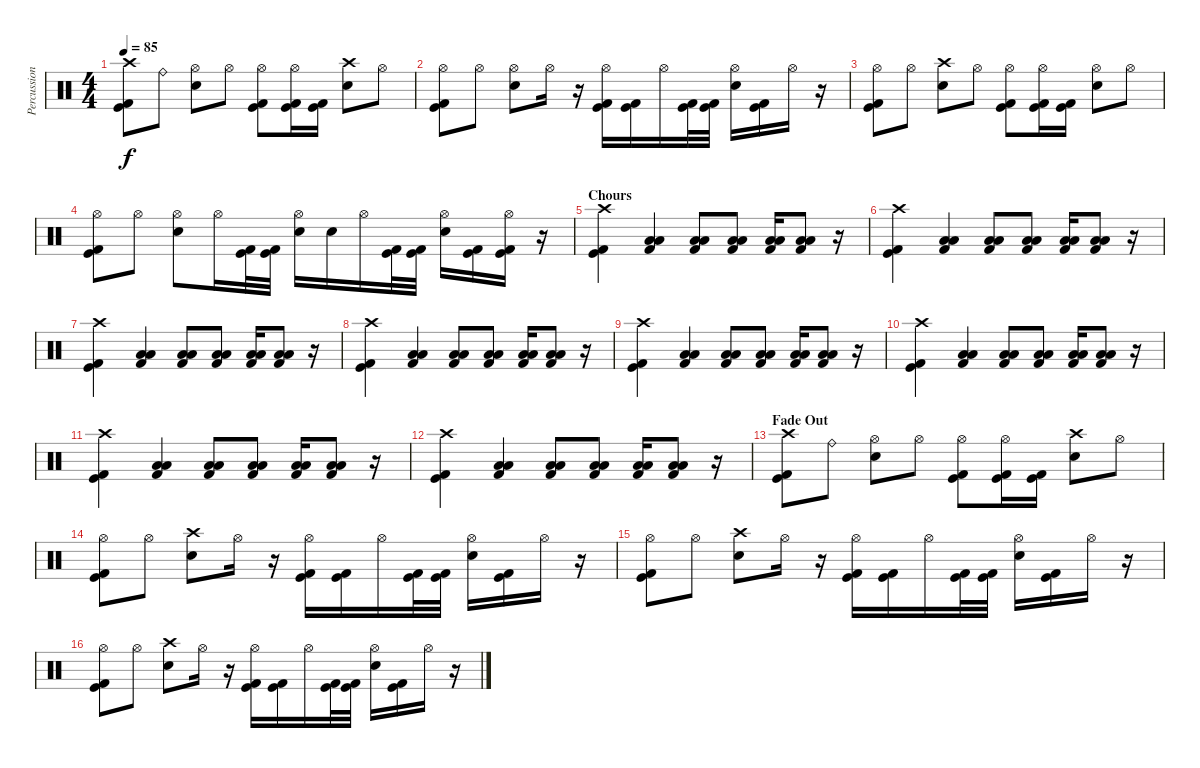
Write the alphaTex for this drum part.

\track ("Percussion" "Percussion") {instrument percussion}
\staff {score}
\articulation defaults
\ts (4 4)
\tempo 85
\clef neutral
\ks c
("Crash high (hit)" "Kick (hit) 2" "Kick (hit)").8{dy f} "Ride (bell)".8 ("Hi-Hat (open)" "Electric Snare (hit)").8 "Hi-Hat (open)".8 ("Hi-Hat (open)" "Kick (hit) 2" "Kick (hit)").8 ("Hi-Hat (open)" "Kick (hit) 2" "Kick (hit)").16 ("Kick (hit) 2" "Kick (hit)").16 ("Crash high (hit)" "Electric Snare (hit)").8 "Hi-Hat (open)".8 |
("Hi-Hat (open)" "Kick (hit) 2" "Kick (hit)").8 "Hi-Hat (open)".8 ("Hi-Hat (open)" "Electric Snare (hit)").8 "Hi-Hat (open)".16 r.16 ("Hi-Hat (open)" "Kick (hit) 2" "Kick (hit)").16 ("Kick (hit) 2" "Kick (hit)").16 "Hi-Hat (open)".16 ("Kick (hit) 2" "Kick (hit)").32 ("Kick (hit) 2" "Kick (hit)").32 ("Hi-Hat (open)" "Electric Snare (hit)").16 ("Kick (hit) 2" "Kick (hit)").16 "Hi-Hat (open)".16 r.16 |
("Hi-Hat (open)" "Kick (hit) 2" "Kick (hit)").8 "Hi-Hat (open)".8 ("Crash high (hit)" "Electric Snare (hit)").8 "Hi-Hat (open)".8 ("Hi-Hat (open)" "Kick (hit) 2" "Kick (hit)").8 ("Hi-Hat (open)" "Kick (hit) 2" "Kick (hit)").16 ("Kick (hit) 2" "Kick (hit)").16 ("Hi-Hat (open)" "Electric Snare (hit)").8 "Hi-Hat (open)".8 |
("Hi-Hat (open)" "Kick (hit) 2" "Kick (hit)").8 "Hi-Hat (open)".8 ("Hi-Hat (open)" "Electric Snare (hit)").8 "Hi-Hat (open)".16 ("Kick (hit) 2" "Kick (hit)").32 ("Kick (hit) 2" "Kick (hit)").32 ("Hi-Hat (open)" "Electric Snare (hit)").16 "Electric Snare (hit)".16 "Hi-Hat (open)".16 ("Kick (hit) 2" "Kick (hit)").32 ("Kick (hit) 2" "Kick (hit)").32 ("Hi-Hat (open)" "Electric Snare (hit)").16 ("Kick (hit) 2" "Kick (hit)").16 ("Hi-Hat (open)" "Kick (hit) 2" "Kick (hit)").16 r.16 |
\section ("" "Chours")
("Kick (hit) 2" "Kick (hit)" "Crash high (hit)").4 ("Low Tom (hit)" "Low Tom (hit)" "Kick (hit) 2").4 ("Low Floor Tom (hit)" "Low Floor Tom (hit)" "Kick (hit) 2").8 ("Low Tom (hit)" "Low Tom (hit)" "Kick (hit) 2").8 ("Low Floor Tom (hit)" "Low Floor Tom (hit)" "Kick (hit) 2").16 ("Low Tom (hit)" "Low Tom (hit)" "Kick (hit) 2").8 r.16 |
("Kick (hit) 2" "Kick (hit)" "Crash high (hit)").4 ("Low Tom (hit)" "Low Tom (hit)" "Kick (hit) 2").4 ("Low Floor Tom (hit)" "Low Floor Tom (hit)" "Kick (hit) 2").8 ("Low Tom (hit)" "Low Tom (hit)" "Kick (hit) 2").8 ("Low Floor Tom (hit)" "Low Floor Tom (hit)" "Kick (hit) 2").16 ("Low Tom (hit)" "Low Tom (hit)" "Kick (hit) 2").8 r.16 |
("Kick (hit) 2" "Kick (hit)" "Crash high (hit)").4 ("Low Tom (hit)" "Low Tom (hit)" "Kick (hit) 2").4 ("Low Floor Tom (hit)" "Low Floor Tom (hit)" "Kick (hit) 2").8 ("Low Tom (hit)" "Low Tom (hit)" "Kick (hit) 2").8 ("Low Floor Tom (hit)" "Low Floor Tom (hit)" "Kick (hit) 2").16 ("Low Tom (hit)" "Low Tom (hit)" "Kick (hit) 2").8 r.16 |
("Kick (hit) 2" "Kick (hit)" "Crash high (hit)").4 ("Low Tom (hit)" "Low Tom (hit)" "Kick (hit) 2").4 ("Low Floor Tom (hit)" "Low Floor Tom (hit)" "Kick (hit) 2").8 ("Low Tom (hit)" "Low Tom (hit)" "Kick (hit) 2").8 ("Low Floor Tom (hit)" "Low Floor Tom (hit)" "Kick (hit) 2").16 ("Low Tom (hit)" "Low Tom (hit)" "Kick (hit) 2").8 r.16 |
("Kick (hit) 2" "Kick (hit)" "Crash high (hit)").4 ("Low Tom (hit)" "Low Tom (hit)" "Kick (hit) 2").4 ("Low Floor Tom (hit)" "Low Floor Tom (hit)" "Kick (hit) 2").8 ("Low Tom (hit)" "Low Tom (hit)" "Kick (hit) 2").8 ("Low Floor Tom (hit)" "Low Floor Tom (hit)" "Kick (hit) 2").16 ("Low Tom (hit)" "Low Tom (hit)" "Kick (hit) 2").8 r.16 |
("Kick (hit) 2" "Kick (hit)" "Crash high (hit)").4 ("Low Tom (hit)" "Low Tom (hit)" "Kick (hit) 2").4 ("Low Floor Tom (hit)" "Low Floor Tom (hit)" "Kick (hit) 2").8 ("Low Tom (hit)" "Low Tom (hit)" "Kick (hit) 2").8 ("Low Floor Tom (hit)" "Low Floor Tom (hit)" "Kick (hit) 2").16 ("Low Tom (hit)" "Low Tom (hit)" "Kick (hit) 2").8 r.16 |
("Kick (hit) 2" "Kick (hit)" "Crash high (hit)").4 ("Low Tom (hit)" "Low Tom (hit)" "Kick (hit) 2").4 ("Low Floor Tom (hit)" "Low Floor Tom (hit)" "Kick (hit) 2").8 ("Low Tom (hit)" "Low Tom (hit)" "Kick (hit) 2").8 ("Low Floor Tom (hit)" "Low Floor Tom (hit)" "Kick (hit) 2").16 ("Low Tom (hit)" "Low Tom (hit)" "Kick (hit) 2").8 r.16 |
("Kick (hit) 2" "Kick (hit)" "Crash high (hit)").4 ("Low Tom (hit)" "Low Tom (hit)" "Kick (hit) 2").4 ("Low Floor Tom (hit)" "Low Floor Tom (hit)" "Kick (hit) 2").8 ("Low Tom (hit)" "Low Tom (hit)" "Kick (hit) 2").8 ("Low Floor Tom (hit)" "Low Floor Tom (hit)" "Kick (hit) 2").16 ("Low Tom (hit)" "Low Tom (hit)" "Kick (hit) 2").8 r.16 |
\section ("" "Fade Out")
("Crash high (hit)" "Kick (hit) 2" "Kick (hit)").8 "Ride (bell)".8 ("Hi-Hat (open)" "Electric Snare (hit)").8 "Hi-Hat (open)".8 ("Hi-Hat (open)" "Kick (hit) 2" "Kick (hit)").8 ("Hi-Hat (open)" "Kick (hit) 2" "Kick (hit)").16 ("Kick (hit) 2" "Kick (hit)").16 ("Crash high (hit)" "Electric Snare (hit)").8 "Hi-Hat (open)".8 |
("Hi-Hat (open)" "Kick (hit) 2" "Kick (hit)").8 "Hi-Hat (open)".8 ("Crash high (hit)" "Electric Snare (hit)").8 "Hi-Hat (open)".16 r.16 ("Hi-Hat (open)" "Kick (hit) 2" "Kick (hit)").16 ("Kick (hit) 2" "Kick (hit)").16 "Hi-Hat (open)".16 ("Kick (hit) 2" "Kick (hit)").32 ("Kick (hit) 2" "Kick (hit)").32 ("Hi-Hat (open)" "Electric Snare (hit)").16 ("Kick (hit) 2" "Kick (hit)").16 "Hi-Hat (open)".16 r.16 |
("Hi-Hat (open)" "Kick (hit) 2" "Kick (hit)").8 "Hi-Hat (open)".8 ("Crash high (hit)" "Electric Snare (hit)").8 "Hi-Hat (open)".16 r.16 ("Hi-Hat (open)" "Kick (hit) 2" "Kick (hit)").16 ("Kick (hit) 2" "Kick (hit)").16 "Hi-Hat (open)".16 ("Kick (hit) 2" "Kick (hit)").32 ("Kick (hit) 2" "Kick (hit)").32 ("Hi-Hat (open)" "Electric Snare (hit)").16 ("Kick (hit) 2" "Kick (hit)").16 "Hi-Hat (open)".16 r.16 |
("Hi-Hat (open)" "Kick (hit) 2" "Kick (hit)").8 "Hi-Hat (open)".8 ("Crash high (hit)" "Electric Snare (hit)").8 "Hi-Hat (open)".16 r.16 ("Hi-Hat (open)" "Kick (hit) 2" "Kick (hit)").16 ("Kick (hit) 2" "Kick (hit)").16 "Hi-Hat (open)".16 ("Kick (hit) 2" "Kick (hit)").32 ("Kick (hit) 2" "Kick (hit)").32 ("Hi-Hat (open)" "Electric Snare (hit)").16 ("Kick (hit) 2" "Kick (hit)").16 "Hi-Hat (open)".16 r.16
